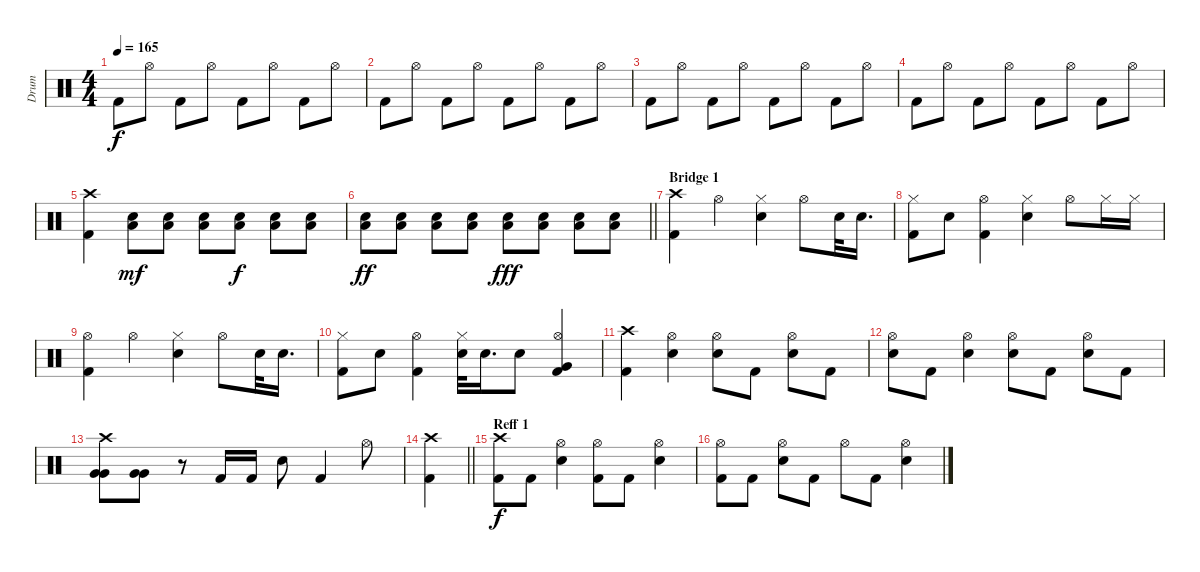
\track ("Drum" "Drum") {instrument percussion}
\staff {score}
\articulation defaults
\ts (4 4)
\tempo 165
\clef neutral
\ks c "Kick (hit) 2".8{dy f} "Hi-Hat (open)".8 "Kick (hit) 2".8 "Hi-Hat (open)".8 "Kick (hit) 2".8 "Hi-Hat (open)".8 "Kick (hit) 2".8 "Hi-Hat (open)".8
|
"Kick (hit) 2".8 "Hi-Hat (open)".8 "Kick (hit) 2".8 "Hi-Hat (open)".8 "Kick (hit) 2".8 "Hi-Hat (open)".8 "Kick (hit) 2".8 "Hi-Hat (open)".8 |
"Kick (hit) 2".8 "Hi-Hat (open)".8 "Kick (hit) 2".8 "Hi-Hat (open)".8 "Kick (hit) 2".8 "Hi-Hat (open)".8 "Kick (hit) 2".8 "Hi-Hat (open)".8 |
"Kick (hit) 2".8 "Hi-Hat (open)".8 "Kick (hit) 2".8 "Hi-Hat (open)".8 "Kick (hit) 2".8 "Hi-Hat (open)".8 "Kick (hit) 2".8 "Hi-Hat (open)".8 |
("Crash high (hit)" "Kick (hit) 2").4 ("Electric Snare (hit)" "Low Tom (hit)").8{dy mf} ("Electric Snare (hit)" "Low Tom (hit)").8 ("Electric Snare (hit)" "Low Tom (hit)").8 ("Electric Snare (hit)" "Low Tom (hit)").8{dy f} ("Electric Snare (hit)" "Low Tom (hit)").8 ("Electric Snare (hit)" "Low Tom (hit)").8 |
\barLineRight lightlight
("Electric Snare (hit)" "Low Tom (hit)").8{dy ff} ("Electric Snare (hit)" "Low Tom (hit)").8 ("Electric Snare (hit)" "Low Tom (hit)").8 ("Electric Snare (hit)" "Low Tom (hit)").8 ("Electric Snare (hit)" "Low Tom (hit)").8{dy fff} ("Electric Snare (hit)" "Low Tom (hit)").8 ("Electric Snare (hit)" "Low Tom (hit)").8 ("Electric Snare (hit)" "Low Tom (hit)").8 |
\section ("" "Bridge 1")
("Crash high (hit)" "Kick (hit) 2").4 "Hi-Hat (open)".4 ("Hi-Hat (closed)" "Electric Snare (hit)").4 "Hi-Hat (open)".8 "Electric Snare (hit)".32 "Electric Snare (hit)".16{d} |
("Hi-Hat (closed)" "Kick (hit) 2").8 "Electric Snare (hit)".8 ("Hi-Hat (open)" "Kick (hit) 2").4 ("Hi-Hat (closed)" "Electric Snare (hit)").4 "Hi-Hat (open)".8 "Hi-Hat (closed)".16 "Hi-Hat (closed)".16 |
("Hi-Hat (open)" "Kick (hit) 2").4 "Hi-Hat (open)".4 ("Hi-Hat (closed)" "Electric Snare (hit)").4 "Hi-Hat (open)".8 "Electric Snare (hit)".32 "Electric Snare (hit)".16{d} |
("Hi-Hat (closed)" "Kick (hit) 2").8 "Electric Snare (hit)".8 ("Hi-Hat (open)" "Kick (hit) 2").4 ("Hi-Hat (closed)" "Electric Snare (hit)").32 "Electric Snare (hit)".16{d} "Electric Snare (hit)".8 ("Hi-Hat (open)" "Very Low Tom (hit)" "Kick (hit) 2").4 |
("Crash high (hit)" "Kick (hit) 2").4 ("Hi-Hat (open)" "Electric Snare (hit)").4 ("Hi-Hat (open)" "Electric Snare (hit)").8 "Kick (hit) 2".8 ("Hi-Hat (open)" "Electric Snare (hit)").8 "Kick (hit) 2".8 |
("Hi-Hat (open)" "Electric Snare (hit)").8 "Kick (hit) 2".8 ("Hi-Hat (open)" "Electric Snare (hit)").4 ("Hi-Hat (open)" "Electric Snare (hit)").8 "Kick (hit) 2".8 ("Hi-Hat (open)" "Electric Snare (hit)").8 "Kick (hit) 2".8 |
("Crash high (hit)" "Very Low Tom (hit)" "Very Low Tom (hit)").8 ("Very Low Tom (hit)" "Very Low Tom (hit)").8 r.8 "Kick (hit) 2".16 "Kick (hit) 2".16 "Electric Snare (hit)".8 "Kick (hit) 2".4 "Hi-Hat (open)".8 |
\barLineRight lightlight
("Crash high (hit)" "Kick (hit) 2").4 |
\section ("" "Reff 1")
("Crash high (hit)" "Kick (hit) 2").8{dy f} "Kick (hit) 2".8 ("Hi-Hat (open)" "Electric Snare (hit)").4 ("Hi-Hat (open)" "Kick (hit) 2").8 "Kick (hit) 2".8 ("Hi-Hat (open)" "Electric Snare (hit)").4 |
("Hi-Hat (open)" "Kick (hit) 2").8 "Kick (hit) 2".8 ("Hi-Hat (open)" "Electric Snare (hit)").8 "Kick (hit) 2".8 "Hi-Hat (open)".8 "Kick (hit) 2".8 ("Hi-Hat (open)" "Electric Snare (hit)").4
